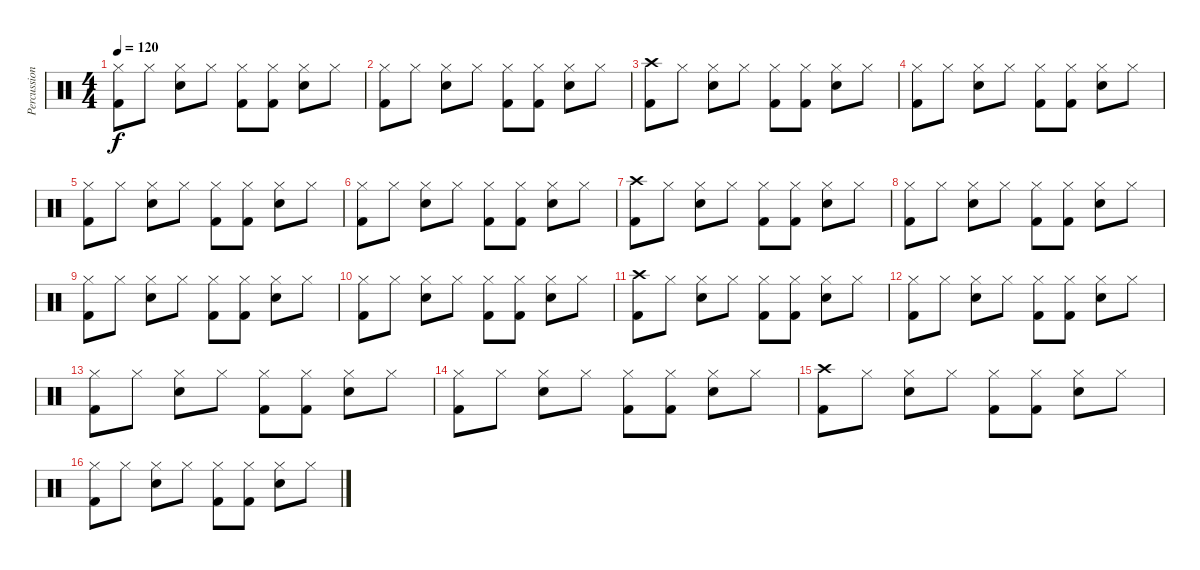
\track ("Percussion" "Percussion") {instrument percussion}
\staff {score}
\articulation defaults
\ts (4 4)
\tempo 120
\clef neutral
\ks c
("Hi-Hat (closed)" "Kick (hit) 2").8{dy f} "Hi-Hat (closed)".8 ("Hi-Hat (closed)" "Electric Snare (hit)").8 "Hi-Hat (closed)".8 ("Hi-Hat (closed)" "Kick (hit) 2").8 ("Hi-Hat (closed)" "Kick (hit) 2").8 ("Hi-Hat (closed)" "Electric Snare (hit)").8 "Hi-Hat (closed)".8 |
("Hi-Hat (closed)" "Kick (hit) 2").8 "Hi-Hat (closed)".8 ("Hi-Hat (closed)" "Electric Snare (hit)").8 "Hi-Hat (closed)".8 ("Hi-Hat (closed)" "Kick (hit) 2").8 ("Hi-Hat (closed)" "Kick (hit) 2").8 ("Hi-Hat (closed)" "Electric Snare (hit)").8 "Hi-Hat (closed)".8 |
("Crash high (hit)" "Kick (hit) 2").8 "Hi-Hat (closed)".8 ("Hi-Hat (closed)" "Electric Snare (hit)").8 "Hi-Hat (closed)".8 ("Hi-Hat (closed)" "Kick (hit) 2").8 ("Hi-Hat (closed)" "Kick (hit) 2").8 ("Hi-Hat (closed)" "Electric Snare (hit)").8 "Hi-Hat (closed)".8 |
("Hi-Hat (closed)" "Kick (hit) 2").8 "Hi-Hat (closed)".8 ("Hi-Hat (closed)" "Electric Snare (hit)").8 "Hi-Hat (closed)".8 ("Hi-Hat (closed)" "Kick (hit) 2").8 ("Hi-Hat (closed)" "Kick (hit) 2").8 ("Hi-Hat (closed)" "Electric Snare (hit)").8 "Hi-Hat (closed)".8 |
("Hi-Hat (closed)" "Kick (hit) 2").8 "Hi-Hat (closed)".8 ("Hi-Hat (closed)" "Electric Snare (hit)").8 "Hi-Hat (closed)".8 ("Hi-Hat (closed)" "Kick (hit) 2").8 ("Hi-Hat (closed)" "Kick (hit) 2").8 ("Hi-Hat (closed)" "Electric Snare (hit)").8 "Hi-Hat (closed)".8 |
("Hi-Hat (closed)" "Kick (hit) 2").8 "Hi-Hat (closed)".8 ("Hi-Hat (closed)" "Electric Snare (hit)").8 "Hi-Hat (closed)".8 ("Hi-Hat (closed)" "Kick (hit) 2").8 ("Hi-Hat (closed)" "Kick (hit) 2").8 ("Hi-Hat (closed)" "Electric Snare (hit)").8 "Hi-Hat (closed)".8 |
("Crash high (hit)" "Kick (hit) 2").8 "Hi-Hat (closed)".8 ("Hi-Hat (closed)" "Electric Snare (hit)").8 "Hi-Hat (closed)".8 ("Hi-Hat (closed)" "Kick (hit) 2").8 ("Hi-Hat (closed)" "Kick (hit) 2").8 ("Hi-Hat (closed)" "Electric Snare (hit)").8 "Hi-Hat (closed)".8 |
("Hi-Hat (closed)" "Kick (hit) 2").8 "Hi-Hat (closed)".8 ("Hi-Hat (closed)" "Electric Snare (hit)").8 "Hi-Hat (closed)".8 ("Hi-Hat (closed)" "Kick (hit) 2").8 ("Hi-Hat (closed)" "Kick (hit) 2").8 ("Hi-Hat (closed)" "Electric Snare (hit)").8 "Hi-Hat (closed)".8 |
("Hi-Hat (closed)" "Kick (hit) 2").8 "Hi-Hat (closed)".8 ("Hi-Hat (closed)" "Electric Snare (hit)").8 "Hi-Hat (closed)".8 ("Hi-Hat (closed)" "Kick (hit) 2").8 ("Hi-Hat (closed)" "Kick (hit) 2").8 ("Hi-Hat (closed)" "Electric Snare (hit)").8 "Hi-Hat (closed)".8 |
("Hi-Hat (closed)" "Kick (hit) 2").8 "Hi-Hat (closed)".8 ("Hi-Hat (closed)" "Electric Snare (hit)").8 "Hi-Hat (closed)".8 ("Hi-Hat (closed)" "Kick (hit) 2").8 ("Hi-Hat (closed)" "Kick (hit) 2").8 ("Hi-Hat (closed)" "Electric Snare (hit)").8 "Hi-Hat (closed)".8 |
("Crash high (hit)" "Kick (hit) 2").8 "Hi-Hat (closed)".8 ("Hi-Hat (closed)" "Electric Snare (hit)").8 "Hi-Hat (closed)".8 ("Hi-Hat (closed)" "Kick (hit) 2").8 ("Hi-Hat (closed)" "Kick (hit) 2").8 ("Hi-Hat (closed)" "Electric Snare (hit)").8 "Hi-Hat (closed)".8 |
("Hi-Hat (closed)" "Kick (hit) 2").8 "Hi-Hat (closed)".8 ("Hi-Hat (closed)" "Electric Snare (hit)").8 "Hi-Hat (closed)".8 ("Hi-Hat (closed)" "Kick (hit) 2").8 ("Hi-Hat (closed)" "Kick (hit) 2").8 ("Hi-Hat (closed)" "Electric Snare (hit)").8 "Hi-Hat (closed)".8 |
("Hi-Hat (closed)" "Kick (hit) 2").8 "Hi-Hat (closed)".8 ("Hi-Hat (closed)" "Electric Snare (hit)").8 "Hi-Hat (closed)".8 ("Hi-Hat (closed)" "Kick (hit) 2").8 ("Hi-Hat (closed)" "Kick (hit) 2").8 ("Hi-Hat (closed)" "Electric Snare (hit)").8 "Hi-Hat (closed)".8 |
("Hi-Hat (closed)" "Kick (hit) 2").8 "Hi-Hat (closed)".8 ("Hi-Hat (closed)" "Electric Snare (hit)").8 "Hi-Hat (closed)".8 ("Hi-Hat (closed)" "Kick (hit) 2").8 ("Hi-Hat (closed)" "Kick (hit) 2").8 ("Hi-Hat (closed)" "Electric Snare (hit)").8 "Hi-Hat (closed)".8 |
("Crash high (hit)" "Kick (hit) 2").8 "Hi-Hat (closed)".8 ("Hi-Hat (closed)" "Electric Snare (hit)").8 "Hi-Hat (closed)".8 ("Hi-Hat (closed)" "Kick (hit) 2").8 ("Hi-Hat (closed)" "Kick (hit) 2").8 ("Hi-Hat (closed)" "Electric Snare (hit)").8 "Hi-Hat (closed)".8 |
("Hi-Hat (closed)" "Kick (hit) 2").8 "Hi-Hat (closed)".8 ("Hi-Hat (closed)" "Electric Snare (hit)").8 "Hi-Hat (closed)".8 ("Hi-Hat (closed)" "Kick (hit) 2").8 ("Hi-Hat (closed)" "Kick (hit) 2").8 ("Hi-Hat (closed)" "Electric Snare (hit)").8 "Hi-Hat (closed)".8
